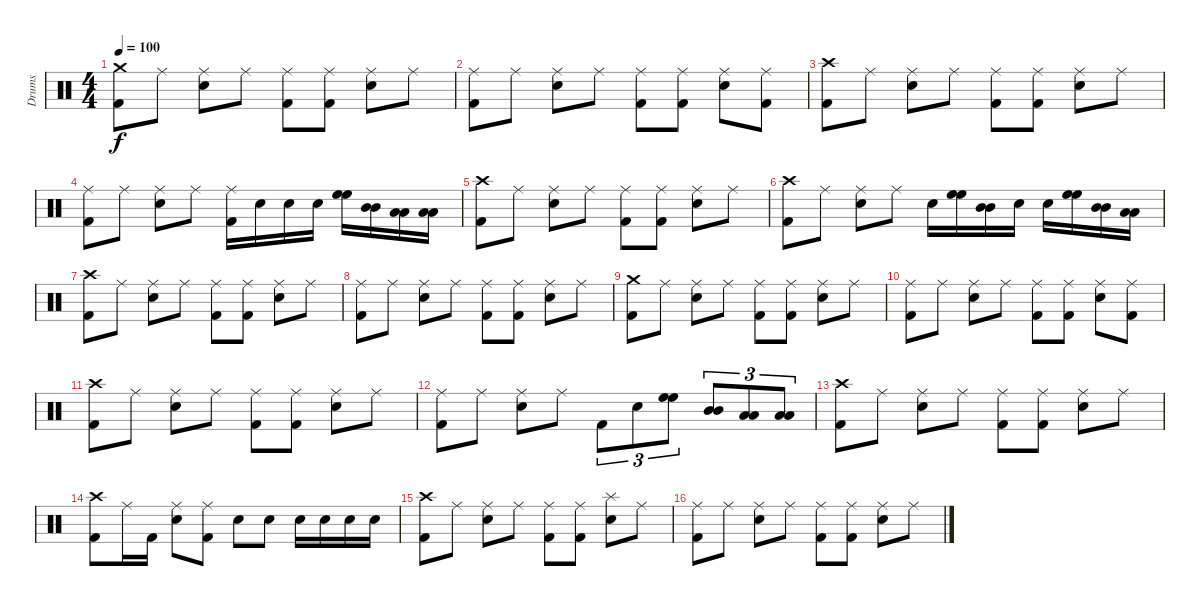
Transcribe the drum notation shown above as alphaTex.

\track ("Drums" "Drums") {instrument percussion}
\staff {score}
\articulation defaults
\ts (4 4)
\tempo 100
\clef neutral
\ks c
("Crash medium (hit)" "Kick (hit) 2").8{dy f} "Ride (middle)".8 ("Ride (middle)" "Snare (hit) 2").8 "Ride (middle)".8 ("Ride (middle)" "Kick (hit) 2").8 ("Ride (middle)" "Kick (hit) 2").8 ("Ride (middle)" "Snare (hit) 2").8 "Ride (middle)".8 |
("Ride (middle)" "Kick (hit) 2").8 "Ride (middle)".8 ("Ride (middle)" "Snare (hit) 2").8 "Ride (middle)".8 ("Ride (middle)" "Kick (hit) 2").8 ("Ride (middle)" "Kick (hit) 2").8 ("Ride (middle)" "Snare (hit) 2").8 ("Ride (middle)" "Kick (hit) 2").8 |
("Crash high (hit)" "Kick (hit) 2").8 "Ride (middle)".8 ("Ride (middle)" "Snare (hit) 2").8 "Ride (middle)".8 ("Ride (middle)" "Kick (hit) 2").8 ("Ride (middle)" "Kick (hit) 2").8 ("Ride (middle)" "Snare (hit) 2").8 "Ride (middle)".8 |
("Ride (middle)" "Kick (hit) 2").8 "Ride (middle)".8 ("Ride (middle)" "Snare (hit) 2").8 "Ride (middle)".8 ("Ride (middle)" "Kick (hit) 2").16 "Snare (hit) 2".16 "Snare (hit) 2".16 "Snare (hit) 2".16 ("High Floor Tom (hit)" "High Floor Tom (hit)").16 ("Mid Tom (hit)" "Mid Tom (hit)").16 ("Low Tom (hit)" "Low Tom (hit)").16 ("Low Floor Tom (hit)" "Low Floor Tom (hit)").16 |
("Crash high (hit)" "Kick (hit) 2").8 "Ride (middle)".8 ("Ride (middle)" "Snare (hit) 2").8 "Ride (middle)".8 ("Ride (middle)" "Kick (hit) 2").8 ("Ride (middle)" "Kick (hit) 2").8 ("Ride (middle)" "Snare (hit) 2").8 "Ride (middle)".8 |
("Crash high (hit)" "Kick (hit) 2").8 "Ride (middle)".8 ("Ride (middle)" "Snare (hit) 2").8 "Ride (middle)".8 "Snare (hit) 2".16 ("High Floor Tom (hit)" "High Floor Tom (hit)").16 ("Mid Tom (hit)" "Mid Tom (hit)").16 "Snare (hit) 2".16 "Snare (hit) 2".16 ("High Floor Tom (hit)" "High Floor Tom (hit)").16 ("Mid Tom (hit)" "Mid Tom (hit)").16 ("Low Tom (hit)" "Low Tom (hit)").16 |
("Crash high (hit)" "Kick (hit) 2").8 "Ride (middle)".8 ("Ride (middle)" "Snare (hit) 2").8 "Ride (middle)".8 ("Ride (middle)" "Kick (hit) 2").8 ("Ride (middle)" "Kick (hit) 2").8 ("Ride (middle)" "Snare (hit) 2").8 "Ride (middle)".8 |
("Ride (middle)" "Kick (hit) 2").8 "Ride (middle)".8 ("Ride (middle)" "Snare (hit) 2").8 "Ride (middle)".8 ("Ride (middle)" "Kick (hit) 2").8 ("Ride (middle)" "Kick (hit) 2").8 ("Ride (middle)" "Snare (hit) 2").8 "Ride (middle)".8 |
("Crash medium (hit)" "Kick (hit) 2").8 "Ride (middle)".8 ("Ride (middle)" "Snare (hit) 2").8 "Ride (middle)".8 ("Ride (middle)" "Kick (hit) 2").8 ("Ride (middle)" "Kick (hit) 2").8 ("Ride (middle)" "Snare (hit) 2").8 "Ride (middle)".8 |
("Ride (middle)" "Kick (hit) 2").8 "Ride (middle)".8 ("Ride (middle)" "Snare (hit) 2").8 "Ride (middle)".8 ("Ride (middle)" "Kick (hit) 2").8 ("Ride (middle)" "Kick (hit) 2").8 ("Ride (middle)" "Snare (hit) 2").8 ("Ride (middle)" "Kick (hit) 2").8 |
("Crash high (hit)" "Kick (hit) 2").8 "Ride (middle)".8 ("Ride (middle)" "Snare (hit) 2").8 "Ride (middle)".8 ("Ride (middle)" "Kick (hit) 2").8 ("Ride (middle)" "Kick (hit) 2").8 ("Ride (middle)" "Snare (hit) 2").8 "Ride (middle)".8 |
("Ride (middle)" "Kick (hit) 2").8 "Ride (middle)".8 ("Ride (middle)" "Snare (hit) 2").8 "Ride (middle)".8 "Kick (hit) 2".8{tu (3 2)} "Snare (hit) 2".8{tu (3 2)} ("High Floor Tom (hit)" "High Floor Tom (hit)").8{tu (3 2)} ("Mid Tom (hit)" "Mid Tom (hit)").8{tu (3 2)} ("Low Tom (hit)" "Low Tom (hit)").8{tu (3 2)} ("Low Floor Tom (hit)" "Low Floor Tom (hit)").8{tu (3 2)} |
("Crash high (hit)" "Kick (hit) 2").8 "Ride (middle)".8 ("Ride (middle)" "Snare (hit) 2").8 "Ride (middle)".8 ("Ride (middle)" "Kick (hit) 2").8 ("Ride (middle)" "Kick (hit) 2").8 ("Ride (middle)" "Snare (hit) 2").8 "Ride (middle)".8 |
("Crash high (hit)" "Kick (hit) 2").8 "Ride (middle)".16 "Kick (hit) 2".16 ("Ride (middle)" "Snare (hit) 2").8 ("Ride (middle)" "Kick (hit) 2").8 "Snare (hit) 2".8 "Snare (hit) 2".8 "Snare (hit) 2".16 "Snare (hit) 2".16 "Snare (hit) 2".16 "Snare (hit) 2".16 |
("Crash high (hit)" "Kick (hit) 2").8 "Ride (middle)".8 ("Ride (middle)" "Snare (hit) 2").8 "Ride (middle)".8 ("Ride (middle)" "Kick (hit) 2").8 ("Ride (middle)" "Kick (hit) 2").8 ("Splash (hit)" "Snare (hit) 2").8 "Ride (middle)".8 |
("Ride (middle)" "Kick (hit) 2").8 "Ride (middle)".8 ("Ride (middle)" "Snare (hit) 2").8 "Ride (middle)".8 ("Ride (middle)" "Kick (hit) 2").8 ("Ride (middle)" "Kick (hit) 2").8 ("Ride (middle)" "Snare (hit) 2").8 "Ride (middle)".8
